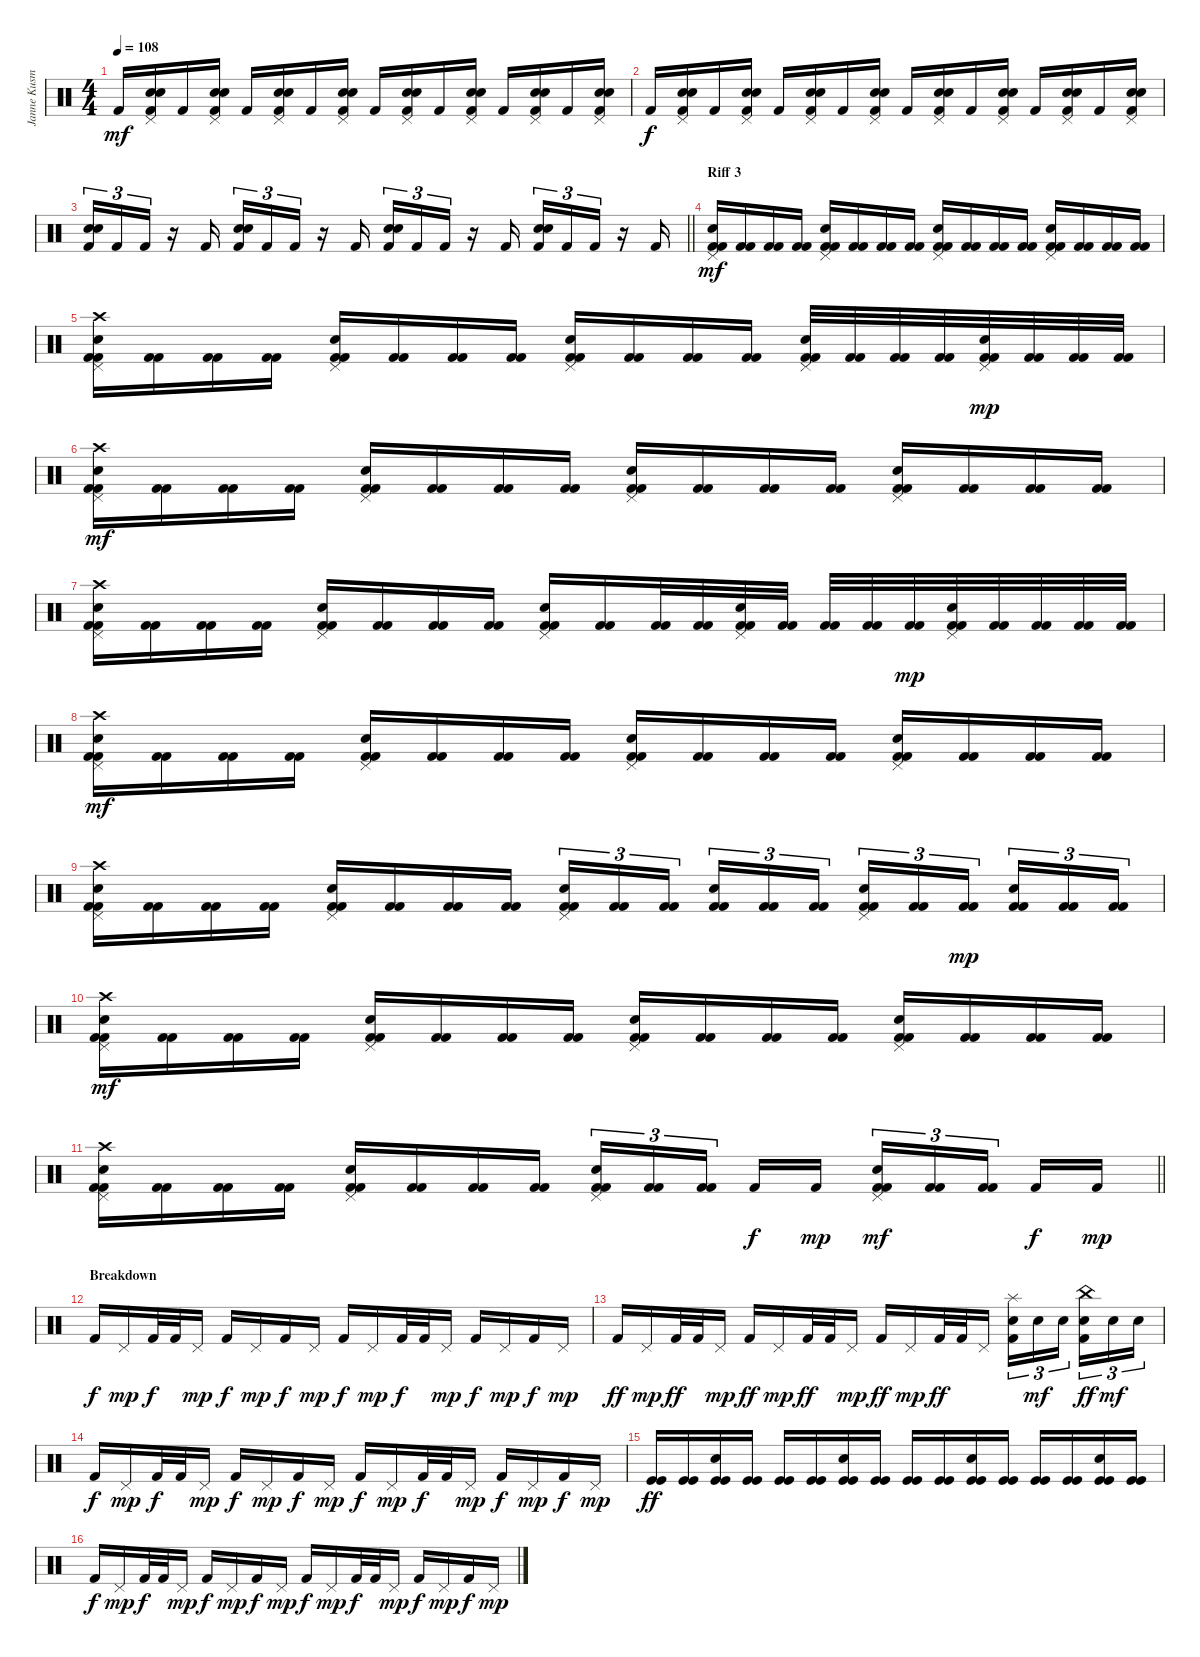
\track ("Janne Kusmin" "Janne Kusm") {instrument percussion}
\staff {score}
\articulation defaults
\ts (4 4)
\tempo 108
\clef neutral
\ks c "Kick (hit) 2".16{dy mf}
("Pedal Hi-Hat (hit)" "Snare (hit) 2" "Snare (hit) 2" "Kick (hit) 2").16 "Kick (hit) 2".16 ("Pedal Hi-Hat (hit)" "Snare (hit) 2" "Snare (hit) 2" "Kick (hit) 2").16 "Kick (hit) 2".16 ("Pedal Hi-Hat (hit)" "Snare (hit) 2" "Snare (hit) 2" "Kick (hit) 2").16 "Kick (hit) 2".16 ("Pedal Hi-Hat (hit)" "Snare (hit) 2" "Snare (hit) 2" "Kick (hit) 2").16 "Kick (hit) 2".16 ("Pedal Hi-Hat (hit)" "Snare (hit) 2" "Snare (hit) 2" "Kick (hit) 2").16 "Kick (hit) 2".16 ("Pedal Hi-Hat (hit)" "Snare (hit) 2" "Snare (hit) 2" "Kick (hit) 2").16 "Kick (hit) 2".16 ("Pedal Hi-Hat (hit)" "Snare (hit) 2" "Snare (hit) 2" "Kick (hit) 2").16 "Kick (hit) 2".16 ("Pedal Hi-Hat (hit)" "Snare (hit) 2" "Snare (hit) 2" "Kick (hit) 2").16 |
"Kick (hit) 2".16{dy f} ("Pedal Hi-Hat (hit)" "Snare (hit) 2" "Snare (hit) 2" "Kick (hit) 2").16 "Kick (hit) 2".16 ("Pedal Hi-Hat (hit)" "Snare (hit) 2" "Snare (hit) 2" "Kick (hit) 2").16 "Kick (hit) 2".16 ("Pedal Hi-Hat (hit)" "Snare (hit) 2" "Snare (hit) 2" "Kick (hit) 2").16 "Kick (hit) 2".16 ("Pedal Hi-Hat (hit)" "Snare (hit) 2" "Snare (hit) 2" "Kick (hit) 2").16 "Kick (hit) 2".16 ("Pedal Hi-Hat (hit)" "Snare (hit) 2" "Snare (hit) 2" "Kick (hit) 2").16 "Kick (hit) 2".16 ("Pedal Hi-Hat (hit)" "Snare (hit) 2" "Snare (hit) 2" "Kick (hit) 2").16 "Kick (hit) 2".16 ("Pedal Hi-Hat (hit)" "Snare (hit) 2" "Snare (hit) 2" "Kick (hit) 2").16 "Kick (hit) 2".16 ("Pedal Hi-Hat (hit)" "Snare (hit) 2" "Snare (hit) 2" "Kick (hit) 2").16 |
\barLineRight lightlight
("Kick (hit) 2" "Snare (hit) 2" "Snare (hit) 2").16{tu (3 2)} "Kick (hit) 2".16{tu (3 2)} "Kick (hit) 2".16{tu (3 2)} r.16 "Kick (hit) 2".16 ("Kick (hit) 2" "Snare (hit) 2" "Snare (hit) 2").16{tu (3 2)} "Kick (hit) 2".16{tu (3 2)} "Kick (hit) 2".16{tu (3 2)} r.16 "Kick (hit) 2".16 ("Kick (hit) 2" "Snare (hit) 2" "Snare (hit) 2").16{tu (3 2)} "Kick (hit) 2".16{tu (3 2)} "Kick (hit) 2".16{tu (3 2)} r.16 "Kick (hit) 2".16 ("Kick (hit) 2" "Snare (hit) 2" "Snare (hit) 2").16{tu (3 2)} "Kick (hit) 2".16{tu (3 2)} "Kick (hit) 2".16{tu (3 2)} r.16 "Kick (hit) 2".16 |
\section ("" "Riff 3")
("Pedal Hi-Hat (hit)" "Snare (hit) 2" "Kick (hit) 2" "Kick (hit) 2").16{dy mf} ("Kick (hit) 2" "Kick (hit) 2").16 ("Kick (hit) 2" "Kick (hit) 2").16 ("Kick (hit) 2" "Kick (hit) 2").16 ("Pedal Hi-Hat (hit)" "Snare (hit) 2" "Kick (hit) 2" "Kick (hit) 2").16 ("Kick (hit) 2" "Kick (hit) 2").16 ("Kick (hit) 2" "Kick (hit) 2").16 ("Kick (hit) 2" "Kick (hit) 2").16 ("Pedal Hi-Hat (hit)" "Snare (hit) 2" "Kick (hit) 2" "Kick (hit) 2").16 ("Kick (hit) 2" "Kick (hit) 2").16 ("Kick (hit) 2" "Kick (hit) 2").16 ("Kick (hit) 2" "Kick (hit) 2").16 ("Pedal Hi-Hat (hit)" "Snare (hit) 2" "Kick (hit) 2" "Kick (hit) 2").16 ("Kick (hit) 2" "Kick (hit) 2").16 ("Kick (hit) 2" "Kick (hit) 2").16 ("Kick (hit) 2" "Kick (hit) 2").16 |
("Crash high (hit)" "Pedal Hi-Hat (hit)" "Snare (hit) 2" "Kick (hit) 2" "Kick (hit) 2").16 ("Kick (hit) 2" "Kick (hit) 2").16 ("Kick (hit) 2" "Kick (hit) 2").16 ("Kick (hit) 2" "Kick (hit) 2").16 ("Pedal Hi-Hat (hit)" "Snare (hit) 2" "Kick (hit) 2" "Kick (hit) 2").16 ("Kick (hit) 2" "Kick (hit) 2").16 ("Kick (hit) 2" "Kick (hit) 2").16 ("Kick (hit) 2" "Kick (hit) 2").16 ("Pedal Hi-Hat (hit)" "Snare (hit) 2" "Kick (hit) 2" "Kick (hit) 2").16 ("Kick (hit) 2" "Kick (hit) 2").16 ("Kick (hit) 2" "Kick (hit) 2").16 ("Kick (hit) 2" "Kick (hit) 2").16 ("Pedal Hi-Hat (hit)" "Snare (hit) 2" "Kick (hit) 2" "Kick (hit) 2").32 ("Kick (hit) 2" "Kick (hit) 2").32 ("Kick (hit) 2" "Kick (hit) 2").32 ("Kick (hit) 2" "Kick (hit) 2").32 ("Pedal Hi-Hat (hit)" "Snare (hit) 2" "Kick (hit) 2" "Kick (hit) 2").32{dy mp} ("Kick (hit) 2" "Kick (hit) 2").32 ("Kick (hit) 2" "Kick (hit) 2").32 ("Kick (hit) 2" "Kick (hit) 2").32 |
("Crash high (hit)" "Pedal Hi-Hat (hit)" "Snare (hit) 2" "Kick (hit) 2" "Kick (hit) 2").16{dy mf} ("Kick (hit) 2" "Kick (hit) 2").16 ("Kick (hit) 2" "Kick (hit) 2").16 ("Kick (hit) 2" "Kick (hit) 2").16 ("Pedal Hi-Hat (hit)" "Snare (hit) 2" "Kick (hit) 2" "Kick (hit) 2").16 ("Kick (hit) 2" "Kick (hit) 2").16 ("Kick (hit) 2" "Kick (hit) 2").16 ("Kick (hit) 2" "Kick (hit) 2").16 ("Pedal Hi-Hat (hit)" "Snare (hit) 2" "Kick (hit) 2" "Kick (hit) 2").16 ("Kick (hit) 2" "Kick (hit) 2").16 ("Kick (hit) 2" "Kick (hit) 2").16 ("Kick (hit) 2" "Kick (hit) 2").16 ("Pedal Hi-Hat (hit)" "Snare (hit) 2" "Kick (hit) 2" "Kick (hit) 2").16 ("Kick (hit) 2" "Kick (hit) 2").16 ("Kick (hit) 2" "Kick (hit) 2").16 ("Kick (hit) 2" "Kick (hit) 2").16 |
("Crash high (hit)" "Pedal Hi-Hat (hit)" "Snare (hit) 2" "Kick (hit) 2" "Kick (hit) 2").16 ("Kick (hit) 2" "Kick (hit) 2").16 ("Kick (hit) 2" "Kick (hit) 2").16 ("Kick (hit) 2" "Kick (hit) 2").16 ("Pedal Hi-Hat (hit)" "Snare (hit) 2" "Kick (hit) 2" "Kick (hit) 2").16 ("Kick (hit) 2" "Kick (hit) 2").16 ("Kick (hit) 2" "Kick (hit) 2").16 ("Kick (hit) 2" "Kick (hit) 2").16 ("Pedal Hi-Hat (hit)" "Snare (hit) 2" "Kick (hit) 2" "Kick (hit) 2").16 ("Kick (hit) 2" "Kick (hit) 2").16 ("Kick (hit) 2" "Kick (hit) 2").32 ("Kick (hit) 2" "Kick (hit) 2").32 ("Pedal Hi-Hat (hit)" "Snare (hit) 2" "Kick (hit) 2" "Kick (hit) 2").32 ("Kick (hit) 2" "Kick (hit) 2").32 ("Kick (hit) 2" "Kick (hit) 2").32 ("Kick (hit) 2" "Kick (hit) 2").32 ("Kick (hit) 2" "Kick (hit) 2").32{dy mp} ("Pedal Hi-Hat (hit)" "Snare (hit) 2" "Kick (hit) 2" "Kick (hit) 2").32 ("Kick (hit) 2" "Kick (hit) 2").32 ("Kick (hit) 2" "Kick (hit) 2").32 ("Kick (hit) 2" "Kick (hit) 2").32 ("Kick (hit) 2" "Kick (hit) 2").32 |
("Crash high (hit)" "Pedal Hi-Hat (hit)" "Snare (hit) 2" "Kick (hit) 2" "Kick (hit) 2").16{dy mf} ("Kick (hit) 2" "Kick (hit) 2").16 ("Kick (hit) 2" "Kick (hit) 2").16 ("Kick (hit) 2" "Kick (hit) 2").16 ("Pedal Hi-Hat (hit)" "Snare (hit) 2" "Kick (hit) 2" "Kick (hit) 2").16 ("Kick (hit) 2" "Kick (hit) 2").16 ("Kick (hit) 2" "Kick (hit) 2").16 ("Kick (hit) 2" "Kick (hit) 2").16 ("Pedal Hi-Hat (hit)" "Snare (hit) 2" "Kick (hit) 2" "Kick (hit) 2").16 ("Kick (hit) 2" "Kick (hit) 2").16 ("Kick (hit) 2" "Kick (hit) 2").16 ("Kick (hit) 2" "Kick (hit) 2").16 ("Pedal Hi-Hat (hit)" "Snare (hit) 2" "Kick (hit) 2" "Kick (hit) 2").16 ("Kick (hit) 2" "Kick (hit) 2").16 ("Kick (hit) 2" "Kick (hit) 2").16 ("Kick (hit) 2" "Kick (hit) 2").16 |
("Crash high (hit)" "Pedal Hi-Hat (hit)" "Snare (hit) 2" "Kick (hit) 2" "Kick (hit) 2").16 ("Kick (hit) 2" "Kick (hit) 2").16 ("Kick (hit) 2" "Kick (hit) 2").16 ("Kick (hit) 2" "Kick (hit) 2").16 ("Pedal Hi-Hat (hit)" "Snare (hit) 2" "Kick (hit) 2" "Kick (hit) 2").16 ("Kick (hit) 2" "Kick (hit) 2").16 ("Kick (hit) 2" "Kick (hit) 2").16 ("Kick (hit) 2" "Kick (hit) 2").16 ("Pedal Hi-Hat (hit)" "Snare (hit) 2" "Kick (hit) 2" "Kick (hit) 2").16{tu (3 2)} ("Kick (hit) 2" "Kick (hit) 2").16{tu (3 2)} ("Kick (hit) 2" "Kick (hit) 2").16{tu (3 2) beam splitsecondary} ("Snare (hit) 2" "Kick (hit) 2" "Kick (hit) 2").16{tu (3 2)} ("Kick (hit) 2" "Kick (hit) 2").16{tu (3 2)} ("Kick (hit) 2" "Kick (hit) 2").16{tu (3 2)} ("Pedal Hi-Hat (hit)" "Snare (hit) 2" "Kick (hit) 2" "Kick (hit) 2").16{tu (3 2)} ("Kick (hit) 2" "Kick (hit) 2").16{tu (3 2)} ("Kick (hit) 2" "Kick (hit) 2").16{tu (3 2) dy mp beam splitsecondary} ("Snare (hit) 2" "Kick (hit) 2" "Kick (hit) 2").16{tu (3 2)} ("Kick (hit) 2" "Kick (hit) 2").16{tu (3 2)} ("Kick (hit) 2" "Kick (hit) 2").16{tu (3 2)} |
("Crash high (hit)" "Pedal Hi-Hat (hit)" "Snare (hit) 2" "Kick (hit) 2" "Kick (hit) 2").16{dy mf} ("Kick (hit) 2" "Kick (hit) 2").16 ("Kick (hit) 2" "Kick (hit) 2").16 ("Kick (hit) 2" "Kick (hit) 2").16 ("Pedal Hi-Hat (hit)" "Snare (hit) 2" "Kick (hit) 2" "Kick (hit) 2").16 ("Kick (hit) 2" "Kick (hit) 2").16 ("Kick (hit) 2" "Kick (hit) 2").16 ("Kick (hit) 2" "Kick (hit) 2").16 ("Pedal Hi-Hat (hit)" "Snare (hit) 2" "Kick (hit) 2" "Kick (hit) 2").16 ("Kick (hit) 2" "Kick (hit) 2").16 ("Kick (hit) 2" "Kick (hit) 2").16 ("Kick (hit) 2" "Kick (hit) 2").16 ("Pedal Hi-Hat (hit)" "Snare (hit) 2" "Kick (hit) 2" "Kick (hit) 2").16 ("Kick (hit) 2" "Kick (hit) 2").16 ("Kick (hit) 2" "Kick (hit) 2").16 ("Kick (hit) 2" "Kick (hit) 2").16 |
\barLineRight lightlight
("Crash high (hit)" "Pedal Hi-Hat (hit)" "Snare (hit) 2" "Kick (hit) 2" "Kick (hit) 2").16 ("Kick (hit) 2" "Kick (hit) 2").16 ("Kick (hit) 2" "Kick (hit) 2").16 ("Kick (hit) 2" "Kick (hit) 2").16 ("Pedal Hi-Hat (hit)" "Snare (hit) 2" "Kick (hit) 2" "Kick (hit) 2").16 ("Kick (hit) 2" "Kick (hit) 2").16 ("Kick (hit) 2" "Kick (hit) 2").16 ("Kick (hit) 2" "Kick (hit) 2").16 ("Pedal Hi-Hat (hit)" "Snare (hit) 2" "Kick (hit) 2" "Kick (hit) 2").16{tu (3 2)} ("Kick (hit) 2" "Kick (hit) 2").16{tu (3 2)} ("Kick (hit) 2" "Kick (hit) 2").16{tu (3 2) beam splitsecondary} "Kick (hit) 2".16{dy f} "Kick (hit) 2".16{dy mp} ("Pedal Hi-Hat (hit)" "Snare (hit) 2" "Kick (hit) 2" "Kick (hit) 2").16{tu (3 2) dy mf} ("Kick (hit) 2" "Kick (hit) 2").16{tu (3 2)} ("Kick (hit) 2" "Kick (hit) 2").16{tu (3 2) beam splitsecondary} "Kick (hit) 2".16{dy f} "Kick (hit) 2".16{dy mp} |
\section ("" "Breakdown")
"Kick (hit) 2".16{dy f} "Pedal Hi-Hat (hit)".16{dy mp} "Kick (hit) 2".32{dy f} "Kick (hit) 2".32 "Pedal Hi-Hat (hit)".16{dy mp} "Kick (hit) 2".16{dy f} "Pedal Hi-Hat (hit)".16{dy mp} "Kick (hit) 2".16{dy f} "Pedal Hi-Hat (hit)".16{dy mp} "Kick (hit) 2".16{dy f} "Pedal Hi-Hat (hit)".16{dy mp} "Kick (hit) 2".32{dy f} "Kick (hit) 2".32 "Pedal Hi-Hat (hit)".16{dy mp} "Kick (hit) 2".16{dy f} "Pedal Hi-Hat (hit)".16{dy mp} "Kick (hit) 2".16{dy f} "Pedal Hi-Hat (hit)".16{dy mp} |
"Kick (hit) 2".16{dy ff} "Pedal Hi-Hat (hit)".16{dy mp} "Kick (hit) 2".32{dy ff} "Kick (hit) 2".32 "Pedal Hi-Hat (hit)".16{dy mp} "Kick (hit) 2".16{dy ff} "Pedal Hi-Hat (hit)".16{dy mp} "Kick (hit) 2".32{dy ff} "Kick (hit) 2".32 "Pedal Hi-Hat (hit)".16{dy mp} "Kick (hit) 2".16{dy ff} "Pedal Hi-Hat (hit)".16{dy mp} "Kick (hit) 2".32{dy ff} "Kick (hit) 2".32 "Pedal Hi-Hat (hit)".16 ("Splash (hit)" "Snare (hit) 2" "Kick (hit) 2").16{tu (3 2)} "Snare (hit) 2".16{tu (3 2) dy mf} "Snare (hit) 2".16{tu (3 2) beam splitsecondary} ("China (hit)" "Snare (hit) 2" "Kick (hit) 2").16{tu (3 2) dy ff} "Snare (hit) 2".16{tu (3 2) dy mf} "Snare (hit) 2".16{tu (3 2)} |
"Kick (hit) 2".16{dy f} "Pedal Hi-Hat (hit)".16{dy mp} "Kick (hit) 2".32{dy f} "Kick (hit) 2".32 "Pedal Hi-Hat (hit)".16{dy mp} "Kick (hit) 2".16{dy f} "Pedal Hi-Hat (hit)".16{dy mp} "Kick (hit) 2".16{dy f} "Pedal Hi-Hat (hit)".16{dy mp} "Kick (hit) 2".16{dy f} "Pedal Hi-Hat (hit)".16{dy mp} "Kick (hit) 2".32{dy f} "Kick (hit) 2".32 "Pedal Hi-Hat (hit)".16{dy mp} "Kick (hit) 2".16{dy f} "Pedal Hi-Hat (hit)".16{dy mp} "Kick (hit) 2".16{dy f} "Pedal Hi-Hat (hit)".16{dy mp} |
("Kick (hit)" "Kick (hit)").16{dy ff} ("Kick (hit)" "Kick (hit)").16 ("Snare (hit) 2" "Kick (hit)" "Kick (hit)").16 ("Kick (hit)" "Kick (hit)").16 ("Kick (hit)" "Kick (hit)").16 ("Kick (hit)" "Kick (hit)").16 ("Snare (hit) 2" "Kick (hit)" "Kick (hit)").16 ("Kick (hit)" "Kick (hit)").16 ("Kick (hit)" "Kick (hit)").16 ("Kick (hit)" "Kick (hit)").16 ("Snare (hit) 2" "Kick (hit)" "Kick (hit)").16 ("Kick (hit)" "Kick (hit)").16 ("Kick (hit)" "Kick (hit)").16 ("Kick (hit)" "Kick (hit)").16 ("Snare (hit) 2" "Kick (hit)" "Kick (hit)").16 ("Kick (hit)" "Kick (hit)").16 |
"Kick (hit) 2".16{dy f} "Pedal Hi-Hat (hit)".16{dy mp} "Kick (hit) 2".32{dy f} "Kick (hit) 2".32 "Pedal Hi-Hat (hit)".16{dy mp} "Kick (hit) 2".16{dy f} "Pedal Hi-Hat (hit)".16{dy mp} "Kick (hit) 2".16{dy f} "Pedal Hi-Hat (hit)".16{dy mp} "Kick (hit) 2".16{dy f} "Pedal Hi-Hat (hit)".16{dy mp} "Kick (hit) 2".32{dy f} "Kick (hit) 2".32 "Pedal Hi-Hat (hit)".16{dy mp} "Kick (hit) 2".16{dy f} "Pedal Hi-Hat (hit)".16{dy mp} "Kick (hit) 2".16{dy f} "Pedal Hi-Hat (hit)".16{dy mp}
